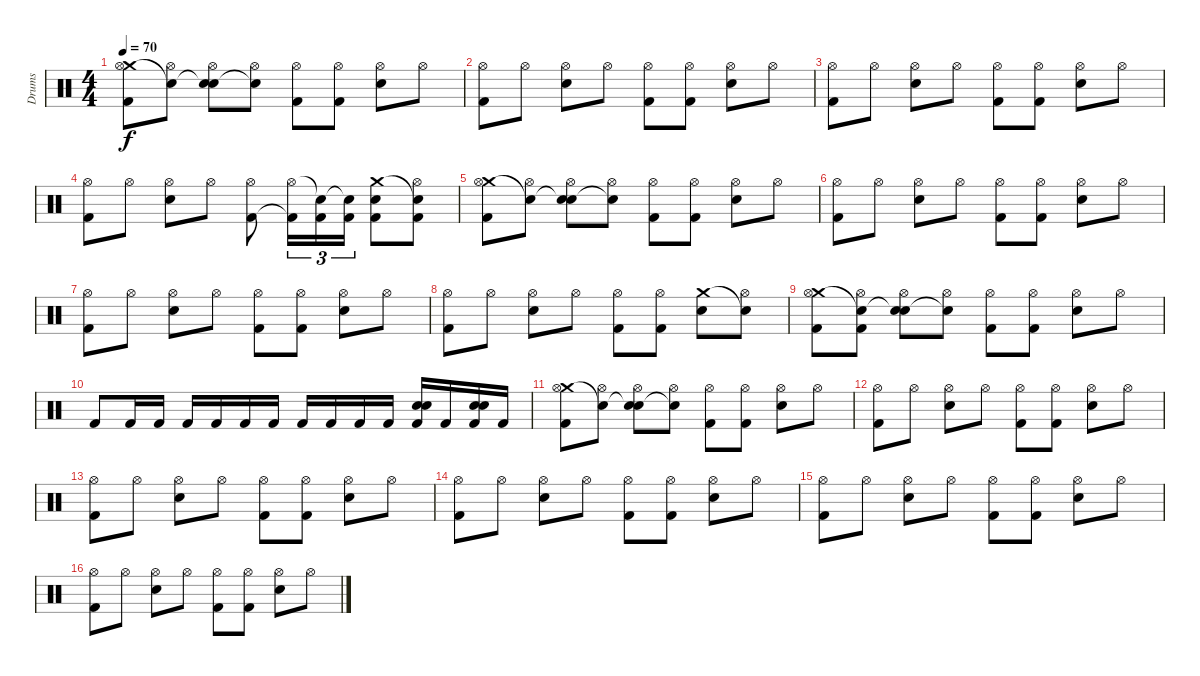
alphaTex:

\track ("Drums" "Drums") {instrument percussion}
\staff {score}
\articulation defaults
\ts (4 4)
\tempo 70
\clef neutral
\ks c
("Crash medium (hit)" "Hi-Hat (open)" "Kick (hit) 2").8{dy f} ("Snare (hit)"{t} "Hi-Hat (open)").8 ("Snare (hit)"{t} "Hi-Hat (open)" "Electric Snare (hit)").8 ("Snare (hit)"{t} "Hi-Hat (open)").8 ("Hi-Hat (open)" "Kick (hit) 2").8 ("Hi-Hat (open)" "Kick (hit) 2").8 ("Hi-Hat (open)" "Electric Snare (hit)").8 "Hi-Hat (open)".8 |
("Hi-Hat (open)" "Kick (hit) 2").8 "Hi-Hat (open)".8 ("Hi-Hat (open)" "Electric Snare (hit)").8 "Hi-Hat (open)".8 ("Hi-Hat (open)" "Kick (hit) 2").8 ("Hi-Hat (open)" "Kick (hit) 2").8 ("Hi-Hat (open)" "Electric Snare (hit)").8 "Hi-Hat (open)".8 |
("Hi-Hat (open)" "Kick (hit) 2").8 "Hi-Hat (open)".8 ("Hi-Hat (open)" "Electric Snare (hit)").8 "Hi-Hat (open)".8 ("Hi-Hat (open)" "Kick (hit) 2").8 ("Hi-Hat (open)" "Kick (hit) 2").8 ("Hi-Hat (open)" "Electric Snare (hit)").8 "Hi-Hat (open)".8 |
("Hi-Hat (open)" "Kick (hit) 2").8 "Hi-Hat (open)".8 ("Hi-Hat (open)" "Electric Snare (hit)").8 "Hi-Hat (open)".8 ("Hi-Hat (open)" "Kick (hit) 2").8 ("Hi-Hat (open)" "Kick (hit) 2"{t}).16{tu (3 2)} ("Snare (hit)"{t} "Kick (hit) 2").16{tu (3 2)} ("Snare (hit)"{t} "Kick (hit) 2").16{tu (3 2)} ("Crash medium (hit)" "Electric Snare (hit)" "Kick (hit) 2").8 ("Snare (hit)"{t} "Hi-Hat (open)" "Kick (hit) 2").8 |
("Crash medium (hit)" "Hi-Hat (open)" "Kick (hit) 2").8 ("Snare (hit)"{t} "Hi-Hat (open)").8 ("Snare (hit)"{t} "Hi-Hat (open)" "Electric Snare (hit)").8 ("Snare (hit)"{t} "Hi-Hat (open)").8 ("Hi-Hat (open)" "Kick (hit) 2").8 ("Hi-Hat (open)" "Kick (hit) 2").8 ("Hi-Hat (open)" "Electric Snare (hit)").8 "Hi-Hat (open)".8 |
("Hi-Hat (open)" "Kick (hit) 2").8 "Hi-Hat (open)".8 ("Hi-Hat (open)" "Electric Snare (hit)").8 "Hi-Hat (open)".8 ("Hi-Hat (open)" "Kick (hit) 2").8 ("Hi-Hat (open)" "Kick (hit) 2").8 ("Hi-Hat (open)" "Electric Snare (hit)").8 "Hi-Hat (open)".8 |
("Hi-Hat (open)" "Kick (hit) 2").8 "Hi-Hat (open)".8 ("Hi-Hat (open)" "Electric Snare (hit)").8 "Hi-Hat (open)".8 ("Hi-Hat (open)" "Kick (hit) 2").8 ("Hi-Hat (open)" "Kick (hit) 2").8 ("Hi-Hat (open)" "Electric Snare (hit)").8 "Hi-Hat (open)".8 |
("Hi-Hat (open)" "Kick (hit) 2").8 "Hi-Hat (open)".8 ("Hi-Hat (open)" "Electric Snare (hit)").8 "Hi-Hat (open)".8 ("Hi-Hat (open)" "Kick (hit) 2").8 ("Hi-Hat (open)" "Kick (hit) 2").8 ("Crash medium (hit)" "Electric Snare (hit)").8 ("Snare (hit)"{t} "Hi-Hat (open)").8 |
("Crash medium (hit)" "Hi-Hat (open)" "Kick (hit) 2").8 ("Snare (hit)"{t} "Hi-Hat (open)" "Kick (hit) 2").8 ("Snare (hit)"{t} "Hi-Hat (open)" "Electric Snare (hit)").8 ("Snare (hit)"{t} "Hi-Hat (open)").8 ("Hi-Hat (open)" "Kick (hit) 2").8 ("Hi-Hat (open)" "Kick (hit) 2").8 ("Hi-Hat (open)" "Electric Snare (hit)").8 "Hi-Hat (open)".8 |
"Kick (hit) 2".8 "Kick (hit) 2".16 "Kick (hit) 2".16 "Kick (hit) 2".16 "Kick (hit) 2".16 "Kick (hit) 2".16 "Kick (hit) 2".16 "Kick (hit) 2".16 "Kick (hit) 2".16 "Kick (hit) 2".16 "Kick (hit) 2".16 ("Electric Snare (hit)" "Electric Snare (hit)" "Kick (hit) 2").16 "Kick (hit) 2".16 ("Electric Snare (hit)" "Electric Snare (hit)" "Kick (hit) 2").16 "Kick (hit) 2".16 |
("Crash medium (hit)" "Hi-Hat (open)" "Kick (hit) 2").8 ("Snare (hit)"{t} "Hi-Hat (open)").8 ("Snare (hit)"{t} "Hi-Hat (open)" "Electric Snare (hit)").8 ("Snare (hit)"{t} "Hi-Hat (open)").8 ("Hi-Hat (open)" "Kick (hit) 2").8 ("Hi-Hat (open)" "Kick (hit) 2").8 ("Hi-Hat (open)" "Electric Snare (hit)").8 "Hi-Hat (open)".8 |
("Hi-Hat (open)" "Kick (hit) 2").8 "Hi-Hat (open)".8 ("Hi-Hat (open)" "Electric Snare (hit)").8 "Hi-Hat (open)".8 ("Hi-Hat (open)" "Kick (hit) 2").8 ("Hi-Hat (open)" "Kick (hit) 2").8 ("Hi-Hat (open)" "Electric Snare (hit)").8 "Hi-Hat (open)".8 |
("Hi-Hat (open)" "Kick (hit) 2").8 "Hi-Hat (open)".8 ("Hi-Hat (open)" "Electric Snare (hit)").8 "Hi-Hat (open)".8 ("Hi-Hat (open)" "Kick (hit) 2").8 ("Hi-Hat (open)" "Kick (hit) 2").8 ("Hi-Hat (open)" "Electric Snare (hit)").8 "Hi-Hat (open)".8 |
("Hi-Hat (open)" "Kick (hit) 2").8 "Hi-Hat (open)".8 ("Hi-Hat (open)" "Electric Snare (hit)").8 "Hi-Hat (open)".8 ("Hi-Hat (open)" "Kick (hit) 2").8 ("Hi-Hat (open)" "Kick (hit) 2").8 ("Hi-Hat (open)" "Electric Snare (hit)").8 "Hi-Hat (open)".8 |
("Hi-Hat (open)" "Kick (hit) 2").8 "Hi-Hat (open)".8 ("Hi-Hat (open)" "Electric Snare (hit)").8 "Hi-Hat (open)".8 ("Hi-Hat (open)" "Kick (hit) 2").8 ("Hi-Hat (open)" "Kick (hit) 2").8 ("Hi-Hat (open)" "Electric Snare (hit)").8 "Hi-Hat (open)".8 |
("Hi-Hat (open)" "Kick (hit) 2").8 "Hi-Hat (open)".8 ("Hi-Hat (open)" "Electric Snare (hit)").8 "Hi-Hat (open)".8 ("Hi-Hat (open)" "Kick (hit) 2").8 ("Hi-Hat (open)" "Kick (hit) 2").8 ("Hi-Hat (open)" "Electric Snare (hit)").8 "Hi-Hat (open)".8
